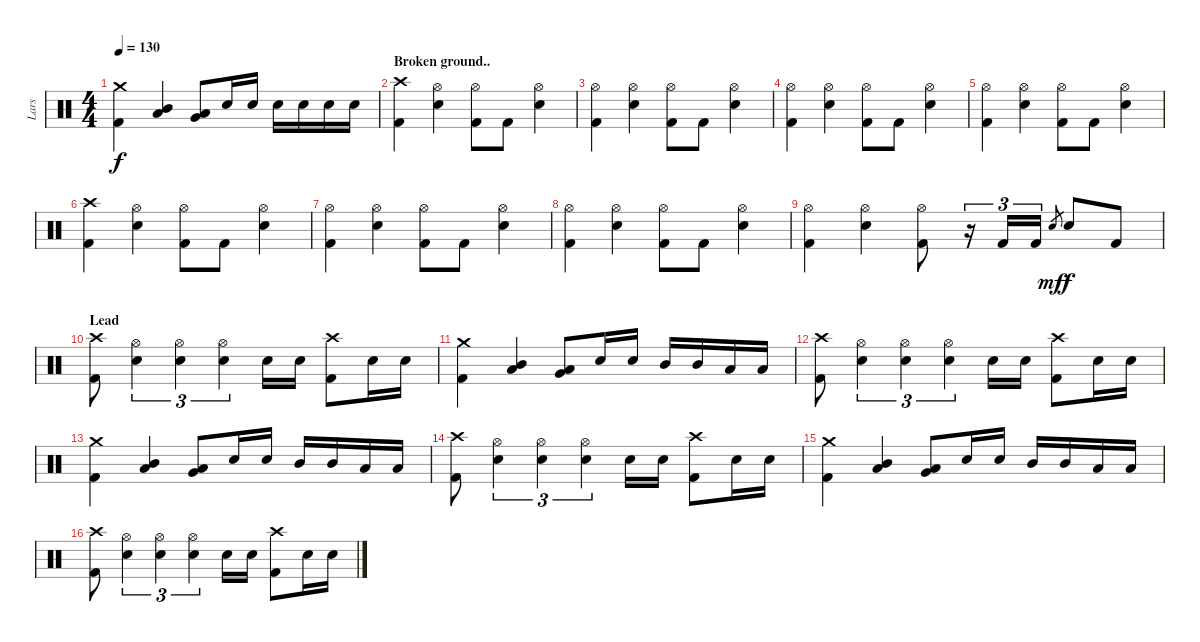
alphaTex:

\track ("Lars" "Lars") {instrument percussion}
\staff {score}
\articulation defaults
\ts (4 4)
\tempo 130
\clef neutral
\ks c
("Kick (hit) 2" "Crash medium (hit)").4{dy f} ("Mid Tom (hit)" "Low Tom (hit)").4{bu 120} ("Low Tom (hit)" "Very Low Tom (hit)").8{bu 120} "Electric Snare (hit)".16 "Electric Snare (hit)".16 "Electric Snare (hit)".16 "Electric Snare (hit)".16 "Electric Snare (hit)".16 "Electric Snare (hit)".16 |
\section ("" "Broken ground..")
("Kick (hit) 2" "Crash high (hit)").4 ("Electric Snare (hit)" "Hi-Hat (open)").4 ("Kick (hit) 2" "Hi-Hat (open)").8 "Kick (hit) 2".8 ("Electric Snare (hit)" "Hi-Hat (open)").4 |
("Kick (hit) 2" "Hi-Hat (open)").4 ("Electric Snare (hit)" "Hi-Hat (open)").4 ("Kick (hit) 2" "Hi-Hat (open)").8 "Kick (hit) 2".8 ("Electric Snare (hit)" "Hi-Hat (open)").4 |
("Kick (hit) 2" "Hi-Hat (open)").4 ("Electric Snare (hit)" "Hi-Hat (open)").4 ("Kick (hit) 2" "Hi-Hat (open)").8 "Kick (hit) 2".8 ("Electric Snare (hit)" "Hi-Hat (open)").4 |
("Kick (hit) 2" "Hi-Hat (open)").4 ("Electric Snare (hit)" "Hi-Hat (open)").4 ("Kick (hit) 2" "Hi-Hat (open)").8 "Kick (hit) 2".8 ("Electric Snare (hit)" "Hi-Hat (open)").4 |
("Kick (hit) 2" "Crash high (hit)").4 ("Electric Snare (hit)" "Hi-Hat (open)").4 ("Kick (hit) 2" "Hi-Hat (open)").8 "Kick (hit) 2".8 ("Electric Snare (hit)" "Hi-Hat (open)").4 |
("Kick (hit) 2" "Hi-Hat (open)").4 ("Electric Snare (hit)" "Hi-Hat (open)").4 ("Kick (hit) 2" "Hi-Hat (open)").8 "Kick (hit) 2".8 ("Electric Snare (hit)" "Hi-Hat (open)").4 |
("Kick (hit) 2" "Hi-Hat (open)").4 ("Electric Snare (hit)" "Hi-Hat (open)").4 ("Kick (hit) 2" "Hi-Hat (open)").8 "Kick (hit) 2".8 ("Electric Snare (hit)" "Hi-Hat (open)").4 |
("Kick (hit) 2" "Hi-Hat (open)").4 ("Electric Snare (hit)" "Hi-Hat (open)").4 ("Kick (hit) 2" "Hi-Hat (open)").8 r.16{tu (3 2)} "Kick (hit) 2".16{tu (3 2)} "Kick (hit) 2".16{tu (3 2)} "Electric Snare (hit)".8{gr dy mf} "Electric Snare (hit)".8{dy f} "Kick (hit) 2".8 |
\section ("" "Lead")
("Kick (hit) 2" "Crash high (hit)").8 ("Electric Snare (hit)" "Hi-Hat (open)").4{tu (3 2)} ("Electric Snare (hit)" "Hi-Hat (open)").4{tu (3 2)} ("Electric Snare (hit)" "Hi-Hat (open)").4{tu (3 2)} "Electric Snare (hit)".16 "Electric Snare (hit)".16 ("Kick (hit) 2" "Crash high (hit)").8 "Electric Snare (hit)".16 "Electric Snare (hit)".16 |
("Kick (hit) 2" "Crash medium (hit)").4 ("Mid Tom (hit)" "Low Tom (hit)").4{bu 120} ("Low Tom (hit)" "Very Low Tom (hit)").8{bu 120} "Electric Snare (hit)".16 "Electric Snare (hit)".16 "Mid Tom (hit)".16 "Mid Tom (hit)".16 "Low Tom (hit)".16 "Low Tom (hit)".16 |
("Kick (hit) 2" "Crash high (hit)").8 ("Electric Snare (hit)" "Hi-Hat (open)").4{tu (3 2)} ("Electric Snare (hit)" "Hi-Hat (open)").4{tu (3 2)} ("Electric Snare (hit)" "Hi-Hat (open)").4{tu (3 2)} "Electric Snare (hit)".16 "Electric Snare (hit)".16 ("Kick (hit) 2" "Crash high (hit)").8 "Electric Snare (hit)".16 "Electric Snare (hit)".16 |
("Kick (hit) 2" "Crash medium (hit)").4 ("Mid Tom (hit)" "Low Tom (hit)").4{bu 120} ("Low Tom (hit)" "Very Low Tom (hit)").8{bu 120} "Electric Snare (hit)".16 "Electric Snare (hit)".16 "Mid Tom (hit)".16 "Mid Tom (hit)".16 "Low Tom (hit)".16 "Low Tom (hit)".16 |
("Kick (hit) 2" "Crash high (hit)").8 ("Electric Snare (hit)" "Hi-Hat (open)").4{tu (3 2)} ("Electric Snare (hit)" "Hi-Hat (open)").4{tu (3 2)} ("Electric Snare (hit)" "Hi-Hat (open)").4{tu (3 2)} "Electric Snare (hit)".16 "Electric Snare (hit)".16 ("Kick (hit) 2" "Crash high (hit)").8 "Electric Snare (hit)".16 "Electric Snare (hit)".16 |
("Kick (hit) 2" "Crash medium (hit)").4 ("Mid Tom (hit)" "Low Tom (hit)").4{bu 120} ("Low Tom (hit)" "Very Low Tom (hit)").8{bu 120} "Electric Snare (hit)".16 "Electric Snare (hit)".16 "Mid Tom (hit)".16 "Mid Tom (hit)".16 "Low Tom (hit)".16 "Low Tom (hit)".16 |
("Kick (hit) 2" "Crash high (hit)").8 ("Electric Snare (hit)" "Hi-Hat (open)").4{tu (3 2)} ("Electric Snare (hit)" "Hi-Hat (open)").4{tu (3 2)} ("Electric Snare (hit)" "Hi-Hat (open)").4{tu (3 2)} "Electric Snare (hit)".16 "Electric Snare (hit)".16 ("Kick (hit) 2" "Crash high (hit)").8 "Electric Snare (hit)".16 "Electric Snare (hit)".16
